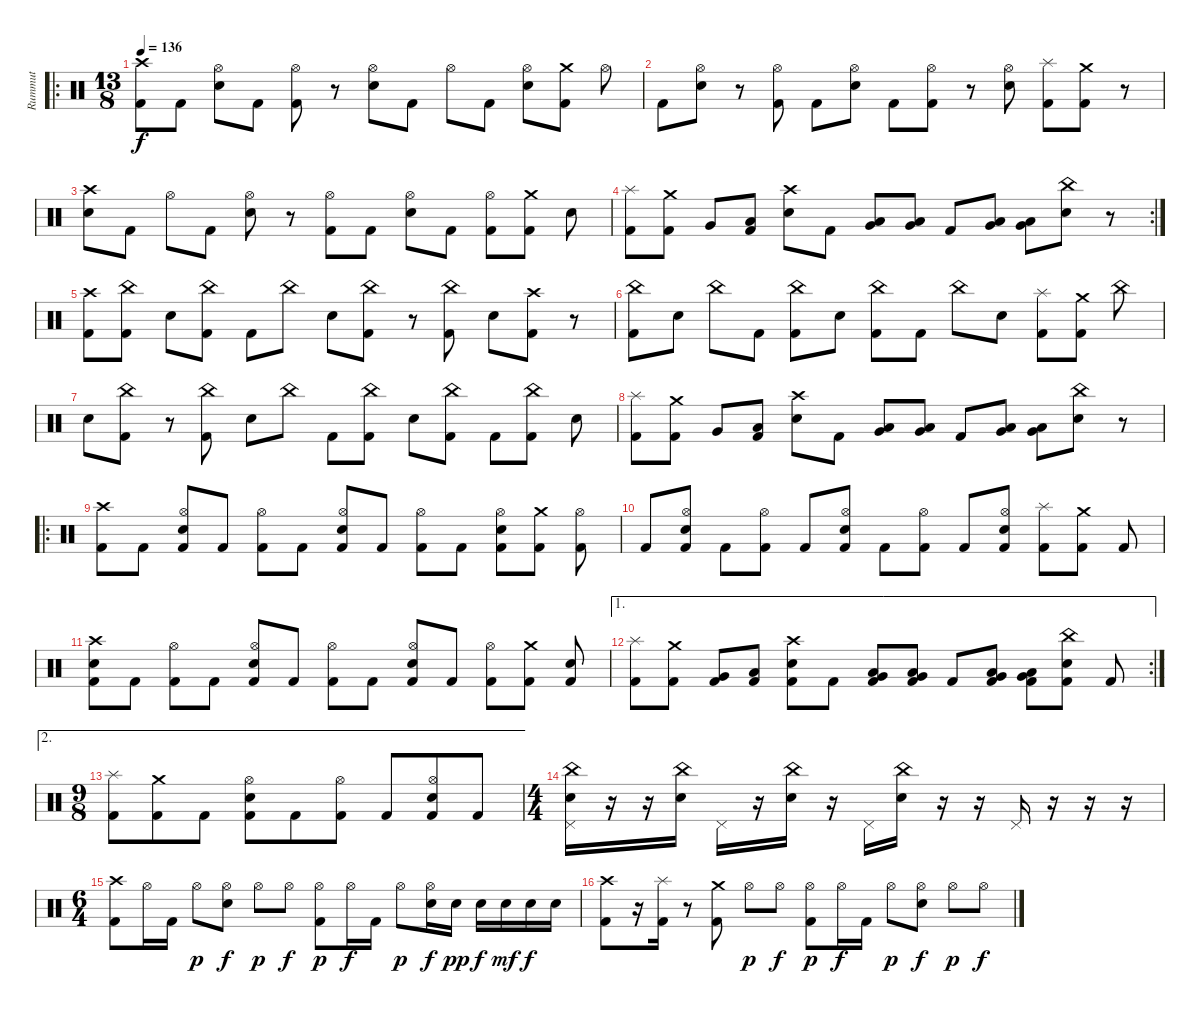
\track ("Rummut" "Rummut") {instrument percussion}
\staff {score}
\articulation defaults
\ro
\ts (13 8)
\tempo 136
\clef neutral
\ks c
("Crash high (hit)" "Kick (hit) 2").8{dy f} "Kick (hit) 2".8 ("Hi-Hat (open)" "Electric Snare (hit)").8 "Kick (hit) 2".8 ("Hi-Hat (open)" "Kick (hit) 2").8 r.8 ("Hi-Hat (open)" "Electric Snare (hit)").8 "Kick (hit) 2".8 "Hi-Hat (open)".8 "Kick (hit) 2".8 ("Hi-Hat (open)" "Electric Snare (hit)").8 ("Crash medium (hit)" "Kick (hit) 2").8 "Hi-Hat (open)".8 |
"Kick (hit) 2".8 ("Hi-Hat (open)" "Electric Snare (hit)").8 r.8 ("Hi-Hat (open)" "Kick (hit) 2").8 "Kick (hit) 2".8 ("Hi-Hat (open)" "Electric Snare (hit)").8 "Kick (hit) 2".8 ("Hi-Hat (open)" "Kick (hit) 2").8 r.8 ("Hi-Hat (open)" "Electric Snare (hit)").8 ("Splash (hit)" "Kick (hit) 2").8 ("Crash medium (hit)" "Kick (hit) 2").8 r.8 |
("Crash high (hit)" "Electric Snare (hit)").8 "Kick (hit) 2".8 "Hi-Hat (open)".8 "Kick (hit) 2".8 ("Hi-Hat (open)" "Electric Snare (hit)").8 r.8 ("Hi-Hat (open)" "Kick (hit) 2").8 "Kick (hit) 2".8 ("Hi-Hat (open)" "Electric Snare (hit)").8 "Kick (hit) 2".8 ("Hi-Hat (open)" "Kick (hit) 2").8 ("Crash medium (hit)" "Kick (hit) 2").8 "Electric Snare (hit)".8 |
\rc 2
("Splash (hit)" "Kick (hit) 2").8 ("Crash medium (hit)" "Kick (hit) 2").8 "Very Low Tom (hit)".8 ("Low Floor Tom (hit)" "Kick (hit) 2").8 ("Crash high (hit)" "Electric Snare (hit)").8 "Kick (hit) 2".8 ("Very Low Tom (hit)" "Low Floor Tom (hit)").8 ("Very Low Tom (hit)" "Low Floor Tom (hit)").8 "Kick (hit) 2".8 ("Very Low Tom (hit)" "Low Floor Tom (hit)").8 ("Very Low Tom (hit)" "Low Floor Tom (hit)").8 ("China (hit)" "Electric Snare (hit)").8 r.8 |
("Crash high (hit)" "Kick (hit) 2").8 ("China (hit)" "Kick (hit) 2").8 "Electric Snare (hit)".8 ("China (hit)" "Kick (hit) 2").8 "Kick (hit) 2".8 "China (hit)".8 "Electric Snare (hit)".8 ("China (hit)" "Kick (hit) 2").8 r.8 ("China (hit)" "Kick (hit) 2").8 "Electric Snare (hit)".8 ("Crash high (hit)" "Kick (hit) 2").8 r.8 |
("China (hit)" "Kick (hit) 2").8 "Electric Snare (hit)".8 "China (hit)".8 "Kick (hit) 2".8 ("China (hit)" "Kick (hit) 2").8 "Electric Snare (hit)".8 ("China (hit)" "Kick (hit) 2").8 "Kick (hit) 2".8 "China (hit)".8 "Electric Snare (hit)".8 ("Splash (hit)" "Kick (hit) 2").8 ("Crash medium (hit)" "Kick (hit) 2").8 "China (hit)".8 |
"Electric Snare (hit)".8 ("China (hit)" "Kick (hit) 2").8 r.8 ("China (hit)" "Kick (hit) 2").8 "Electric Snare (hit)".8 "China (hit)".8 "Kick (hit) 2".8 ("China (hit)" "Kick (hit) 2").8 "Electric Snare (hit)".8 ("China (hit)" "Kick (hit) 2").8 "Kick (hit) 2".8 ("China (hit)" "Kick (hit) 2").8 "Electric Snare (hit)".8 |
("Splash (hit)" "Kick (hit) 2").8 ("Crash medium (hit)" "Kick (hit) 2").8 "Very Low Tom (hit)".8 ("Low Floor Tom (hit)" "Kick (hit) 2").8 ("Crash high (hit)" "Electric Snare (hit)").8 "Kick (hit) 2".8 ("Very Low Tom (hit)" "Low Floor Tom (hit)").8 ("Very Low Tom (hit)" "Low Floor Tom (hit)").8 "Kick (hit) 2".8 ("Very Low Tom (hit)" "Low Floor Tom (hit)").8 ("Very Low Tom (hit)" "Low Floor Tom (hit)").8 ("China (hit)" "Electric Snare (hit)").8 r.8 |
\ro
("Crash high (hit)" "Kick (hit) 2").8 "Kick (hit) 2".8 ("Hi-Hat (open)" "Electric Snare (hit)" "Kick (hit) 2").8 "Kick (hit) 2".8 ("Hi-Hat (open)" "Kick (hit) 2").8 "Kick (hit) 2".8 ("Hi-Hat (open)" "Electric Snare (hit)" "Kick (hit) 2").8 "Kick (hit) 2".8 ("Hi-Hat (open)" "Kick (hit) 2").8 "Kick (hit) 2".8 ("Hi-Hat (open)" "Electric Snare (hit)" "Kick (hit) 2").8 ("Crash medium (hit)" "Kick (hit) 2").8 ("Hi-Hat (open)" "Kick (hit) 2").8 |
"Kick (hit) 2".8 ("Hi-Hat (open)" "Electric Snare (hit)" "Kick (hit) 2").8 "Kick (hit) 2".8 ("Hi-Hat (open)" "Kick (hit) 2").8 "Kick (hit) 2".8 ("Hi-Hat (open)" "Electric Snare (hit)" "Kick (hit) 2").8 "Kick (hit) 2".8 ("Hi-Hat (open)" "Kick (hit) 2").8 "Kick (hit) 2".8 ("Hi-Hat (open)" "Electric Snare (hit)" "Kick (hit) 2").8 ("Splash (hit)" "Kick (hit) 2").8 ("Crash medium (hit)" "Kick (hit) 2").8 "Kick (hit) 2".8 |
("Crash high (hit)" "Electric Snare (hit)" "Kick (hit) 2").8 "Kick (hit) 2".8 ("Hi-Hat (open)" "Kick (hit) 2").8 "Kick (hit) 2".8 ("Hi-Hat (open)" "Electric Snare (hit)" "Kick (hit) 2").8 "Kick (hit) 2".8 ("Hi-Hat (open)" "Kick (hit) 2").8 "Kick (hit) 2".8 ("Hi-Hat (open)" "Electric Snare (hit)" "Kick (hit) 2").8 "Kick (hit) 2".8 ("Hi-Hat (open)" "Kick (hit) 2").8 ("Crash medium (hit)" "Kick (hit) 2").8 ("Electric Snare (hit)" "Kick (hit) 2").8 |
\ae 1
\rc 2
("Splash (hit)" "Kick (hit) 2").8 ("Crash medium (hit)" "Kick (hit) 2").8 ("Very Low Tom (hit)" "Kick (hit) 2").8 ("Low Floor Tom (hit)" "Kick (hit) 2").8 ("Crash high (hit)" "Electric Snare (hit)" "Kick (hit) 2").8 "Kick (hit) 2".8 ("Very Low Tom (hit)" "Low Floor Tom (hit)" "Kick (hit) 2").8 ("Very Low Tom (hit)" "Low Floor Tom (hit)" "Kick (hit) 2").8 "Kick (hit) 2".8 ("Very Low Tom (hit)" "Low Floor Tom (hit)" "Kick (hit) 2").8 ("Very Low Tom (hit)" "Low Floor Tom (hit)" "Kick (hit) 2").8 ("China (hit)" "Electric Snare (hit)" "Kick (hit) 2").8 "Kick (hit) 2".8 |
\ae 2
\ts (9 8)
("Splash (hit)" "Kick (hit) 2").8 ("Crash medium (hit)" "Kick (hit) 2").8 "Kick (hit) 2".8 ("Hi-Hat (open)" "Electric Snare (hit)" "Kick (hit) 2").8 "Kick (hit) 2".8 ("Hi-Hat (open)" "Kick (hit) 2").8 "Kick (hit) 2".8 ("Hi-Hat (open)" "Electric Snare (hit)" "Kick (hit) 2").8 "Kick (hit) 2".8 |
\ts (4 4)
("China (hit)" "Pedal Hi-Hat (hit)" "Electric Snare (hit)").16 r.16 r.16 ("China (hit)" "Electric Snare (hit)").16 "Pedal Hi-Hat (hit)".16 r.16 ("China (hit)" "Electric Snare (hit)").16 r.16 "Pedal Hi-Hat (hit)".16 ("China (hit)" "Electric Snare (hit)").16 r.16 r.16 "Pedal Hi-Hat (hit)".16 r.16 r.16 r.16 |
\ts (6 4)
("Crash high (hit)" "Kick (hit) 2").8 "Hi-Hat (open)".16 "Kick (hit) 2".16 "Hi-Hat (open)".8{dy p} ("Hi-Hat (open)" "Electric Snare (hit)").8{dy f} "Hi-Hat (open)".8{dy p} "Hi-Hat (open)".8{dy f} ("Hi-Hat (open)" "Kick (hit) 2").8{dy p} "Hi-Hat (open)".16{dy f} "Kick (hit) 2".16 "Hi-Hat (open)".8{dy p} ("Hi-Hat (open)" "Electric Snare (hit)").16{dy f} "Electric Snare (hit)".16{dy pp} "Electric Snare (hit)".16{dy f} "Electric Snare (hit)".16{dy mf} "Electric Snare (hit)".16{dy f} "Electric Snare (hit)".16 |
("Crash high (hit)" "Kick (hit) 2").8 r.16 ("Splash (hit)" "Kick (hit) 2").16 r.8 ("Crash medium (hit)" "Kick (hit) 2").8 "Hi-Hat (open)".8{dy p} "Hi-Hat (open)".8{dy f} ("Hi-Hat (open)" "Kick (hit) 2").8{dy p} "Hi-Hat (open)".16{dy f} "Kick (hit) 2".16 "Hi-Hat (open)".8{dy p} ("Hi-Hat (open)" "Electric Snare (hit)").8{dy f} "Hi-Hat (open)".8{dy p} "Hi-Hat (open)".8{dy f}
